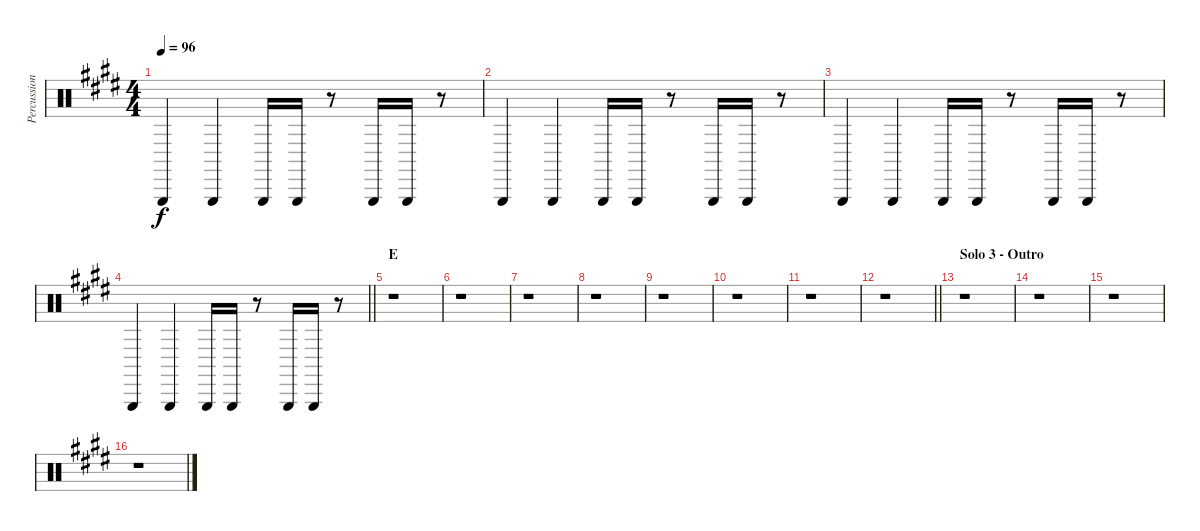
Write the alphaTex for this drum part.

\track ("Percussion" "Percussion") {instrument percussion}
\staff {score}
\articulation defaults
\ts (4 4)
\tempo 96
\clef neutral
\ks e "Triangle (hit)".4{dy f} "Triangle (hit)".4 "Triangle (hit)".16 "Triangle (hit)".16
r.8 "Triangle (hit)".16 "Triangle (hit)".16 r.8 |
"Triangle (hit)".4 "Triangle (hit)".4 "Triangle (hit)".16 "Triangle (hit)".16 r.8 "Triangle (hit)".16 "Triangle (hit)".16 r.8 |
"Triangle (hit)".4 "Triangle (hit)".4 "Triangle (hit)".16 "Triangle (hit)".16 r.8 "Triangle (hit)".16 "Triangle (hit)".16 r.8 |
\barLineRight lightlight "Triangle (hit)".4 "Triangle (hit)".4 "Triangle (hit)".16 "Triangle (hit)".16
r.8 "Triangle (hit)".16 "Triangle (hit)".16 r.8 |
\section ("" "E")
r.1 |
r.1 |
r.1 |
r.1 |
r.1 |
r.1 |
r.1 |
\barLineRight lightlight
r.1 |
\section ("" "Solo 3 - Outro")
r.1 |
r.1 |
r.1 |
r.1
